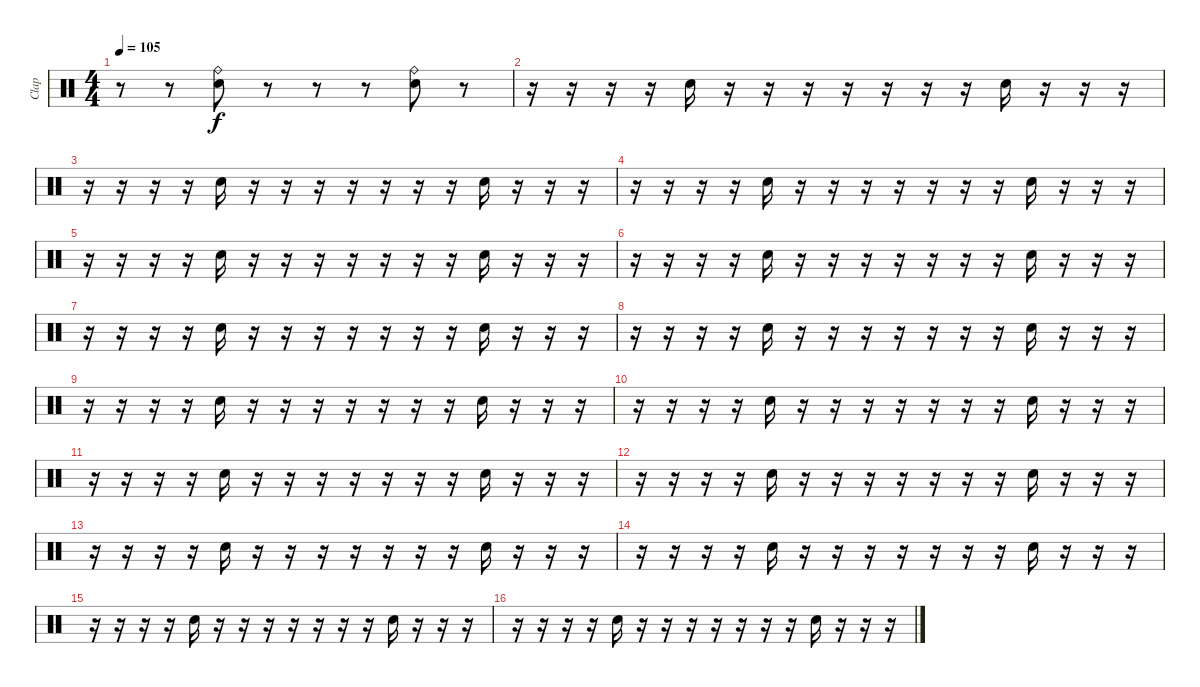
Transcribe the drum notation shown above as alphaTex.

\track ("Clap" "Clap") {instrument percussion}
\staff {score}
\articulation defaults
\ts (4 4)
\tempo 105
\clef neutral
\ks c
r.8{dy f} r.8 ("Hand Clap (hit)" "Ride (bell)").8 r.8 r.8 r.8 ("Hand Clap (hit)" "Ride (bell)").8 r.8 |
r.16 r.16 r.16 r.16 "Hand Clap (hit)".16 r.16 r.16 r.16 r.16 r.16 r.16 r.16 "Hand Clap (hit)".16 r.16 r.16 r.16 |
r.16 r.16 r.16 r.16 "Hand Clap (hit)".16 r.16 r.16 r.16 r.16 r.16 r.16 r.16 "Hand Clap (hit)".16 r.16 r.16 r.16 |
r.16 r.16 r.16 r.16 "Hand Clap (hit)".16 r.16 r.16 r.16 r.16 r.16 r.16 r.16 "Hand Clap (hit)".16 r.16 r.16 r.16 |
r.16 r.16 r.16 r.16 "Hand Clap (hit)".16 r.16 r.16 r.16 r.16 r.16 r.16 r.16 "Hand Clap (hit)".16 r.16 r.16 r.16 |
r.16 r.16 r.16 r.16 "Hand Clap (hit)".16 r.16 r.16 r.16 r.16 r.16 r.16 r.16 "Hand Clap (hit)".16 r.16 r.16 r.16 |
r.16 r.16 r.16 r.16 "Hand Clap (hit)".16 r.16 r.16 r.16 r.16 r.16 r.16 r.16 "Hand Clap (hit)".16 r.16 r.16 r.16 |
r.16 r.16 r.16 r.16 "Hand Clap (hit)".16 r.16 r.16 r.16 r.16 r.16 r.16 r.16 "Hand Clap (hit)".16 r.16 r.16 r.16 |
r.16 r.16 r.16 r.16 "Hand Clap (hit)".16 r.16 r.16 r.16 r.16 r.16 r.16 r.16 "Hand Clap (hit)".16 r.16 r.16 r.16 |
r.16 r.16 r.16 r.16 "Hand Clap (hit)".16 r.16 r.16 r.16 r.16 r.16 r.16 r.16 "Hand Clap (hit)".16 r.16 r.16 r.16 |
r.16 r.16 r.16 r.16 "Hand Clap (hit)".16 r.16 r.16 r.16 r.16 r.16 r.16 r.16 "Hand Clap (hit)".16 r.16 r.16 r.16 |
r.16 r.16 r.16 r.16 "Hand Clap (hit)".16 r.16 r.16 r.16 r.16 r.16 r.16 r.16 "Hand Clap (hit)".16 r.16 r.16 r.16 |
r.16 r.16 r.16 r.16 "Hand Clap (hit)".16 r.16 r.16 r.16 r.16 r.16 r.16 r.16 "Hand Clap (hit)".16 r.16 r.16 r.16 |
r.16 r.16 r.16 r.16 "Hand Clap (hit)".16 r.16 r.16 r.16 r.16 r.16 r.16 r.16 "Hand Clap (hit)".16 r.16 r.16 r.16 |
r.16 r.16 r.16 r.16 "Hand Clap (hit)".16 r.16 r.16 r.16 r.16 r.16 r.16 r.16 "Hand Clap (hit)".16 r.16 r.16 r.16 |
r.16 r.16 r.16 r.16 "Hand Clap (hit)".16 r.16 r.16 r.16 r.16 r.16 r.16 r.16 "Hand Clap (hit)".16 r.16 r.16 r.16
